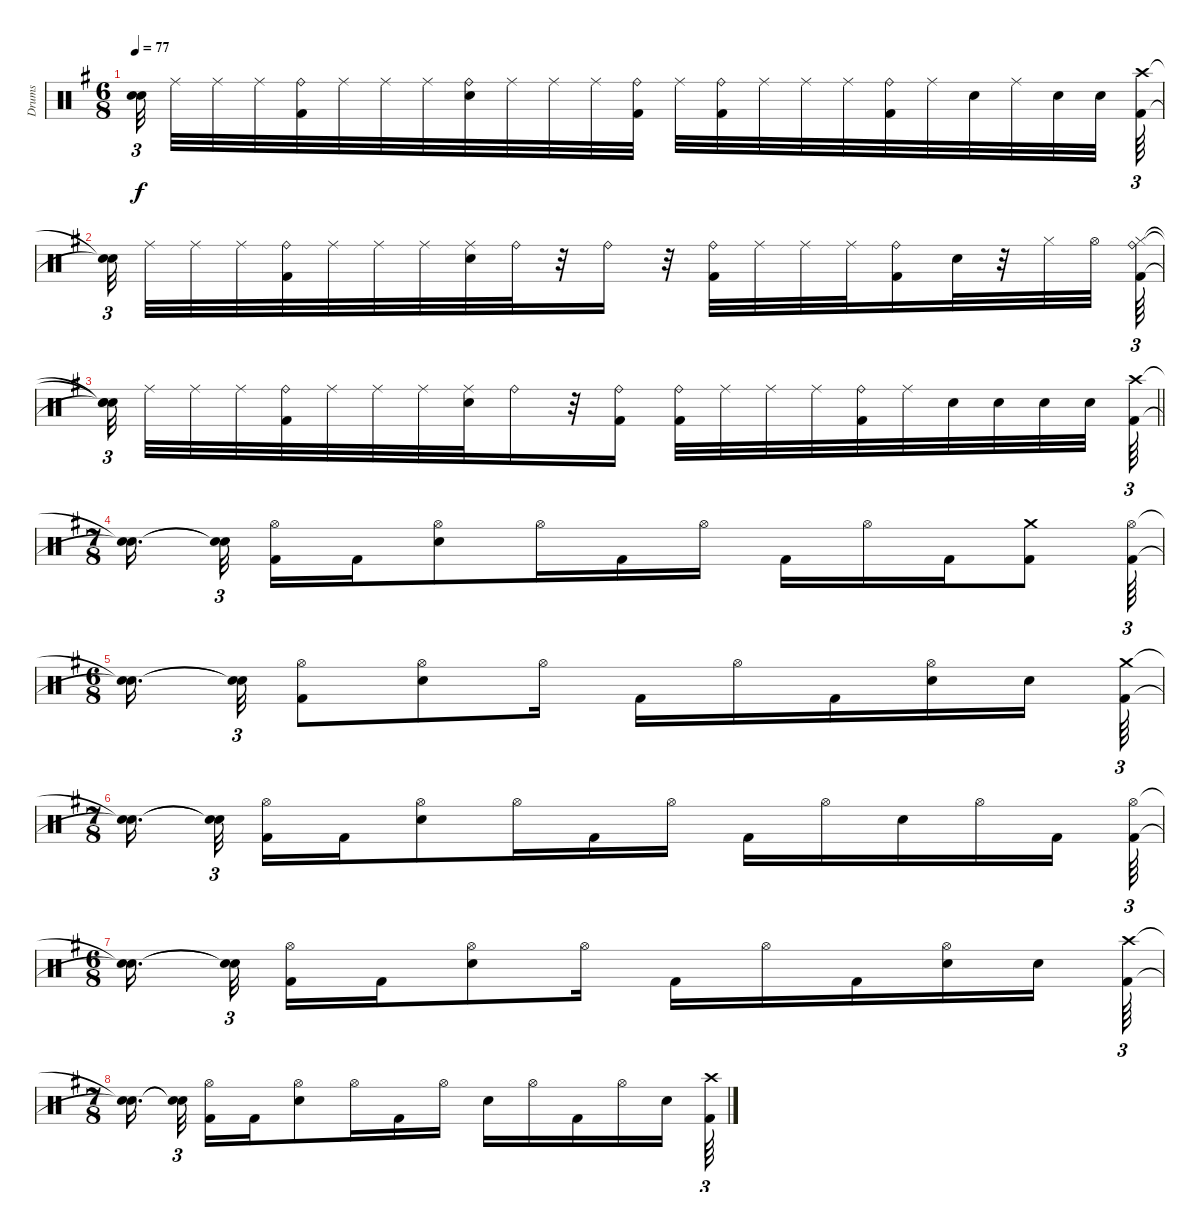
\track ("Drums" "Drums") {instrument percussion}
\staff {score}
\articulation defaults
\ts (6 8)
\tempo 77
\clef neutral
\ks g
("Snare (hit)"{t} "Snare (hit)"{t}).32{tu (3 2) dy f beam splitsecondary} "Ride (middle)".32 "Ride (middle)".32 "Ride (middle)".32 ("Kick (hit) 2" "Ride (bell)").32 "Ride (middle)".32 "Ride (middle)".32 "Ride (middle)".32 ("Electric Snare (hit)" "Ride (bell)").32 "Ride (middle)".32 "Ride (middle)".32 "Ride (middle)".32 ("Kick (hit) 2" "Ride (bell)").32 "Ride (middle)".32 ("Kick (hit) 2" "Ride (bell)").32 "Ride (middle)".32 "Ride (middle)".32 "Ride (middle)".32 ("Kick (hit) 2" "Ride (bell)").32 "Ride (middle)".32 "Electric Snare (hit)".32 "Ride (middle)".32 "Electric Snare (hit)".32 "Electric Snare (hit)".32{beam splitsecondary} ("Crash high (hit)" "Kick (hit) 2").64{tu (3 2)} |
("Snare (hit)"{t} "Snare (hit)"{t}).32{tu (3 2) beam splitsecondary} "Ride (middle)".32 "Ride (middle)".32 "Ride (middle)".32 ("Ride (bell)" "Kick (hit) 2").32 "Ride (middle)".32 "Ride (middle)".32 "Ride (middle)".32 ("Electric Snare (hit)" "Ride (middle)").32 "Ride (bell)".32 r.32 "Ride (bell)".16 r.32 ("Kick (hit) 2" "Ride (bell)").32 "Ride (middle)".32 "Ride (middle)".32 "Ride (middle)".32 ("Ride (bell)" "Kick (hit) 2").16 "Electric Snare (hit)".32 r.32 "Hi-Hat (closed)".32 "Hi-Hat (open)".32{beam splitsecondary} ("Hi-Hat (closed)" "Kick (hit) 2" "Ride (bell)").64{tu (3 2)} |
\barLineRight lightlight
("Snare (hit)"{t} "Snare (hit)"{t} "Snare (hit)"{t}).32{tu (3 2) beam splitsecondary} "Ride (middle)".32 "Ride (middle)".32 "Ride (middle)".32 ("Kick (hit) 2" "Ride (bell)").32 "Ride (middle)".32 "Ride (middle)".32 "Ride (middle)".32 ("Electric Snare (hit)" "Ride (middle)").32 "Ride (bell)".16 r.32 ("Kick (hit) 2" "Ride (bell)").16 ("Kick (hit) 2" "Ride (bell)").32 "Ride (middle)".32 "Ride (middle)".32 "Ride (middle)".32 ("Kick (hit) 2" "Ride (bell)").32 "Ride (middle)".32 "Electric Snare (hit)".32 "Electric Snare (hit)".32 "Electric Snare (hit)".32 "Electric Snare (hit)".32{beam splitsecondary} ("Crash high (hit)" "Kick (hit) 2").64{tu (3 2)} |
\ts (7 8)
("Snare (hit)"{t} "Snare (hit)"{t}).16{d beam splitsecondary} ("Snare (hit)"{t} "Snare (hit)"{t}).32{tu (3 2)} ("Hi-Hat (open)" "Kick (hit) 2").16 "Kick (hit) 2".16 ("Electric Snare (hit)" "Hi-Hat (open)").8 "Hi-Hat (open)".16 "Kick (hit) 2".16 "Hi-Hat (open)".16 "Kick (hit) 2".16 "Hi-Hat (open)".16 "Kick (hit) 2".16 ("Crash medium (hit)" "Kick (hit) 2").8 ("Hi-Hat (open)" "Kick (hit) 2").64{tu (3 2)} |
\ts (6 8)
("Snare (hit)"{t} "Snare (hit)"{t}).16{d beam splitsecondary} ("Snare (hit)"{t} "Snare (hit)"{t}).32{tu (3 2)} ("Hi-Hat (open)" "Kick (hit) 2").8 ("Hi-Hat (open)" "Electric Snare (hit)").8 "Hi-Hat (open)".16 "Kick (hit) 2".16 "Hi-Hat (open)".16 "Kick (hit) 2".16 ("Hi-Hat (open)" "Electric Snare (hit)").16 "Electric Snare (hit)".16{beam splitsecondary} ("Kick (hit) 2" "Crash medium (hit)").64{tu (3 2)} |
\ts (7 8)
("Snare (hit)"{t} "Snare (hit)"{t}).16{d beam splitsecondary} ("Snare (hit)"{t} "Snare (hit)"{t}).32{tu (3 2)} ("Hi-Hat (open)" "Kick (hit) 2").16 "Kick (hit) 2".16 ("Electric Snare (hit)" "Hi-Hat (open)").8 "Hi-Hat (open)".16 "Kick (hit) 2".16 "Hi-Hat (open)".16 "Kick (hit) 2".16 "Hi-Hat (open)".16 "Electric Snare (hit)".16 "Hi-Hat (open)".16 "Kick (hit) 2".16 ("Kick (hit) 2" "Hi-Hat (open)").64{tu (3 2)} |
\ts (6 8)
("Snare (hit)"{t} "Snare (hit)"{t}).16{d beam splitsecondary} ("Snare (hit)"{t} "Snare (hit)"{t}).32{tu (3 2) beam splitsecondary} ("Hi-Hat (open)" "Kick (hit) 2").16 "Kick (hit) 2".16 ("Hi-Hat (open)" "Electric Snare (hit)").8 "Hi-Hat (open)".16 "Kick (hit) 2".16 "Hi-Hat (open)".16 "Kick (hit) 2".16 ("Hi-Hat (open)" "Electric Snare (hit)").16 "Electric Snare (hit)".16{beam splitsecondary} ("Crash high (hit)" "Kick (hit) 2").64{tu (3 2)} |
\ts (7 8)
("Snare (hit)"{t} "Snare (hit)"{t}).16{d beam splitsecondary} ("Snare (hit)"{t} "Snare (hit)"{t}).32{tu (3 2)} ("Hi-Hat (open)" "Kick (hit) 2").16 "Kick (hit) 2".16 ("Electric Snare (hit)" "Hi-Hat (open)").8 "Hi-Hat (open)".16 "Kick (hit) 2".16 "Hi-Hat (open)".16 "Electric Snare (hit)".16 "Hi-Hat (open)".16 "Kick (hit) 2".16 "Hi-Hat (open)".16 "Electric Snare (hit)".16 ("Kick (hit) 2" "Crash high (hit)").64{tu (3 2)}
